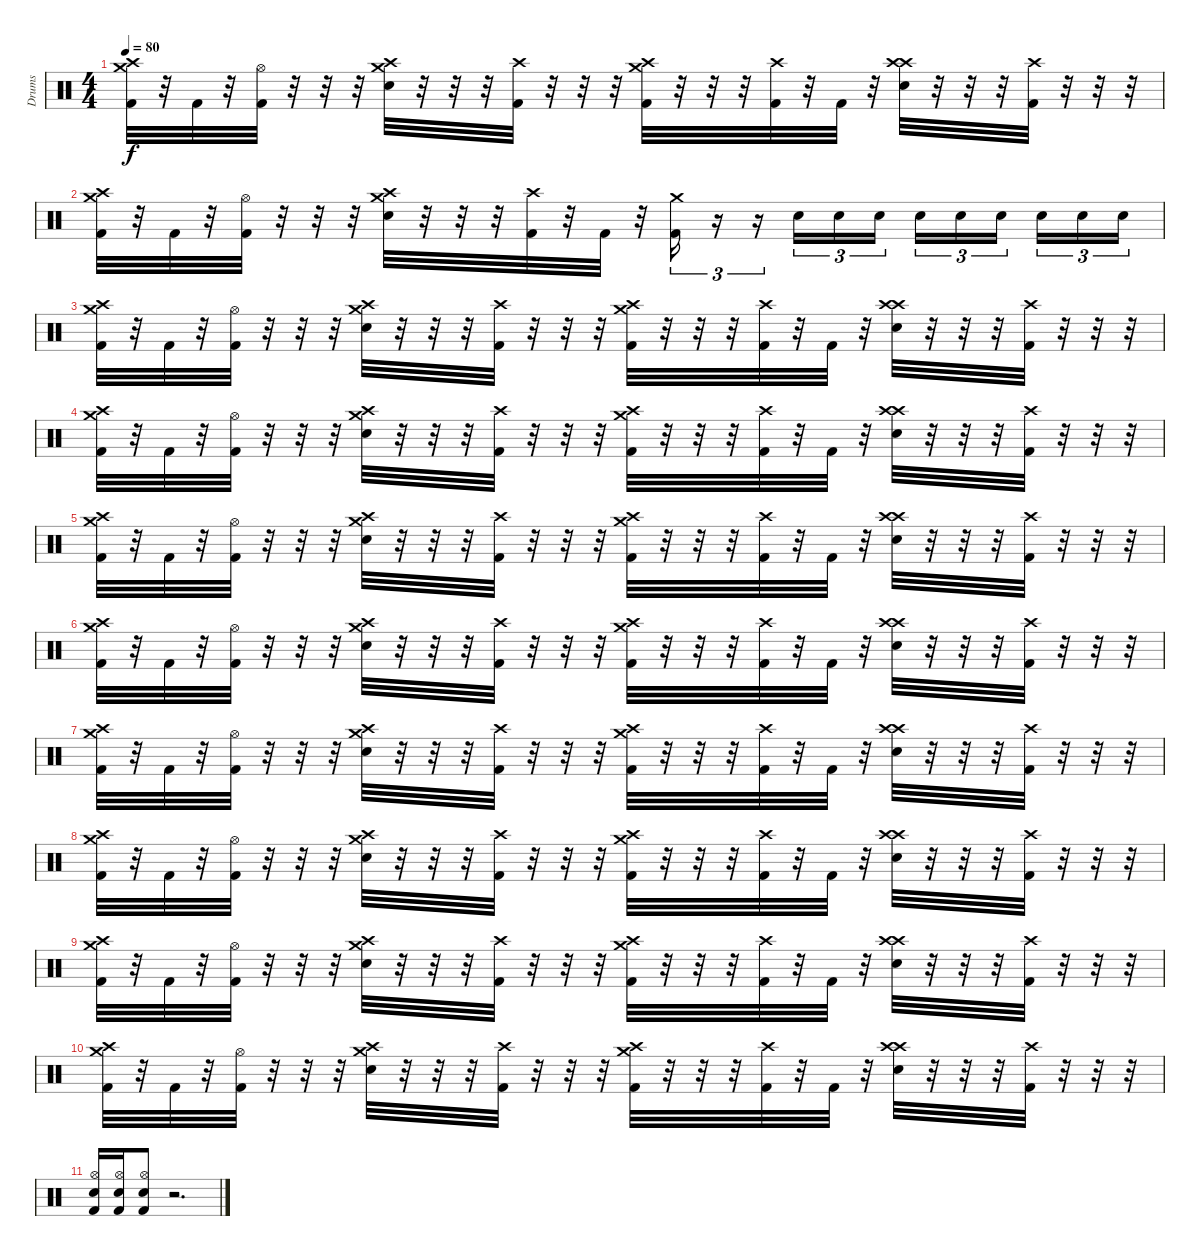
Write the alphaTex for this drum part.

\track ("Drums" "Drums") {instrument percussion}
\staff {score}
\articulation defaults
\ts (4 4)
\tempo 80
\clef neutral
\ks c
("Crash high (hit)" "Crash medium (hit)" "Kick (hit) 2").32{dy f volume 15} r.32 "Kick (hit) 2".32 r.32 ("Hi-Hat (open)" "Kick (hit) 2").32 r.32 r.32 r.32 ("Crash high (hit)" "Crash medium (hit)" "Electric Snare (hit)").32 r.32 r.32 r.32 ("Crash high (hit)" "Kick (hit) 2").32 r.32 r.32 r.32 ("Crash high (hit)" "Crash medium (hit)" "Kick (hit) 2").32 r.32 r.32 r.32 ("Crash high (hit)" "Kick (hit) 2").32 r.32 "Kick (hit) 2".32 r.32 ("Crash high (hit)" "Crash high (hit)" "Electric Snare (hit)").32 r.32 r.32 r.32 ("Crash high (hit)" "Kick (hit) 2").32 r.32 r.32 r.32 |
("Crash high (hit)" "Crash medium (hit)" "Kick (hit) 2").32{volume 15} r.32 "Kick (hit) 2".32 r.32 ("Hi-Hat (open)" "Kick (hit) 2").32 r.32 r.32 r.32 ("Crash high (hit)" "Crash medium (hit)" "Electric Snare (hit)").32 r.32 r.32 r.32 ("Crash high (hit)" "Kick (hit) 2").32 r.32 "Kick (hit) 2".32 r.32 ("Crash medium (hit)" "Kick (hit) 2").16{tu (3 2)} r.16{tu (3 2)} r.16{tu (3 2)} "Electric Snare (hit)".16{tu (3 2)} "Electric Snare (hit)".16{tu (3 2)} "Electric Snare (hit)".16{tu (3 2)} "Electric Snare (hit)".16{tu (3 2)} "Electric Snare (hit)".16{tu (3 2)} "Electric Snare (hit)".16{tu (3 2)} "Electric Snare (hit)".16{tu (3 2)} "Electric Snare (hit)".16{tu (3 2)} "Electric Snare (hit)".16{tu (3 2)} |
("Crash high (hit)" "Crash medium (hit)" "Kick (hit) 2").32{volume 15} r.32 "Kick (hit) 2".32 r.32 ("Hi-Hat (open)" "Kick (hit) 2").32 r.32 r.32 r.32 ("Crash high (hit)" "Crash medium (hit)" "Electric Snare (hit)").32 r.32 r.32 r.32 ("Crash high (hit)" "Kick (hit) 2").32 r.32 r.32 r.32 ("Crash high (hit)" "Crash medium (hit)" "Kick (hit) 2").32 r.32 r.32 r.32 ("Crash high (hit)" "Kick (hit) 2").32 r.32 "Kick (hit) 2".32 r.32 ("Crash high (hit)" "Crash high (hit)" "Electric Snare (hit)").32 r.32 r.32 r.32 ("Crash high (hit)" "Kick (hit) 2").32 r.32 r.32 r.32 |
("Crash high (hit)" "Crash medium (hit)" "Kick (hit) 2").32{volume 15} r.32 "Kick (hit) 2".32 r.32 ("Hi-Hat (open)" "Kick (hit) 2").32 r.32 r.32 r.32 ("Crash high (hit)" "Crash medium (hit)" "Electric Snare (hit)").32 r.32 r.32 r.32 ("Crash high (hit)" "Kick (hit) 2").32 r.32 r.32 r.32 ("Crash high (hit)" "Crash medium (hit)" "Kick (hit) 2").32 r.32 r.32 r.32 ("Crash high (hit)" "Kick (hit) 2").32 r.32 "Kick (hit) 2".32 r.32 ("Crash high (hit)" "Crash high (hit)" "Electric Snare (hit)").32 r.32 r.32 r.32 ("Crash high (hit)" "Kick (hit) 2").32 r.32 r.32 r.32 |
("Crash high (hit)" "Crash medium (hit)" "Kick (hit) 2").32{volume 15} r.32 "Kick (hit) 2".32 r.32 ("Hi-Hat (open)" "Kick (hit) 2").32 r.32 r.32 r.32 ("Crash high (hit)" "Crash medium (hit)" "Electric Snare (hit)").32 r.32 r.32 r.32 ("Crash high (hit)" "Kick (hit) 2").32 r.32 r.32 r.32 ("Crash high (hit)" "Crash medium (hit)" "Kick (hit) 2").32 r.32 r.32 r.32 ("Crash high (hit)" "Kick (hit) 2").32 r.32 "Kick (hit) 2".32 r.32 ("Crash high (hit)" "Crash high (hit)" "Electric Snare (hit)").32 r.32 r.32 r.32 ("Crash high (hit)" "Kick (hit) 2").32 r.32 r.32 r.32 |
("Crash high (hit)" "Crash medium (hit)" "Kick (hit) 2").32{volume 15} r.32 "Kick (hit) 2".32 r.32 ("Hi-Hat (open)" "Kick (hit) 2").32 r.32 r.32 r.32 ("Crash high (hit)" "Crash medium (hit)" "Electric Snare (hit)").32 r.32 r.32 r.32 ("Crash high (hit)" "Kick (hit) 2").32 r.32 r.32 r.32 ("Crash high (hit)" "Crash medium (hit)" "Kick (hit) 2").32 r.32 r.32 r.32 ("Crash high (hit)" "Kick (hit) 2").32 r.32 "Kick (hit) 2".32 r.32 ("Crash high (hit)" "Crash high (hit)" "Electric Snare (hit)").32 r.32 r.32 r.32 ("Crash high (hit)" "Kick (hit) 2").32 r.32 r.32 r.32 |
("Crash high (hit)" "Crash medium (hit)" "Kick (hit) 2").32{volume 15} r.32 "Kick (hit) 2".32 r.32 ("Hi-Hat (open)" "Kick (hit) 2").32 r.32 r.32 r.32 ("Crash high (hit)" "Crash medium (hit)" "Electric Snare (hit)").32 r.32 r.32 r.32 ("Crash high (hit)" "Kick (hit) 2").32 r.32 r.32 r.32 ("Crash high (hit)" "Crash medium (hit)" "Kick (hit) 2").32 r.32 r.32 r.32 ("Crash high (hit)" "Kick (hit) 2").32 r.32 "Kick (hit) 2".32 r.32 ("Crash high (hit)" "Crash high (hit)" "Electric Snare (hit)").32 r.32 r.32 r.32 ("Crash high (hit)" "Kick (hit) 2").32 r.32 r.32 r.32 |
("Crash high (hit)" "Crash medium (hit)" "Kick (hit) 2").32{volume 15} r.32 "Kick (hit) 2".32 r.32 ("Hi-Hat (open)" "Kick (hit) 2").32 r.32 r.32 r.32 ("Crash high (hit)" "Crash medium (hit)" "Electric Snare (hit)").32 r.32 r.32 r.32 ("Crash high (hit)" "Kick (hit) 2").32 r.32 r.32 r.32 ("Crash high (hit)" "Crash medium (hit)" "Kick (hit) 2").32 r.32 r.32 r.32 ("Crash high (hit)" "Kick (hit) 2").32 r.32 "Kick (hit) 2".32 r.32 ("Crash high (hit)" "Crash high (hit)" "Electric Snare (hit)").32 r.32 r.32 r.32 ("Crash high (hit)" "Kick (hit) 2").32 r.32 r.32 r.32 |
("Crash high (hit)" "Crash medium (hit)" "Kick (hit) 2").32{volume 15} r.32 "Kick (hit) 2".32 r.32 ("Hi-Hat (open)" "Kick (hit) 2").32 r.32 r.32 r.32 ("Crash high (hit)" "Crash medium (hit)" "Electric Snare (hit)").32 r.32 r.32 r.32 ("Crash high (hit)" "Kick (hit) 2").32 r.32 r.32 r.32 ("Crash high (hit)" "Crash medium (hit)" "Kick (hit) 2").32 r.32 r.32 r.32 ("Crash high (hit)" "Kick (hit) 2").32 r.32 "Kick (hit) 2".32 r.32 ("Crash high (hit)" "Crash high (hit)" "Electric Snare (hit)").32 r.32 r.32 r.32 ("Crash high (hit)" "Kick (hit) 2").32 r.32 r.32 r.32 |
("Crash high (hit)" "Crash medium (hit)" "Kick (hit) 2").32{volume 15} r.32 "Kick (hit) 2".32 r.32 ("Hi-Hat (open)" "Kick (hit) 2").32 r.32 r.32 r.32 ("Crash high (hit)" "Crash medium (hit)" "Electric Snare (hit)").32 r.32 r.32 r.32 ("Crash high (hit)" "Kick (hit) 2").32 r.32 r.32 r.32 ("Crash high (hit)" "Crash medium (hit)" "Kick (hit) 2").32 r.32 r.32 r.32 ("Crash high (hit)" "Kick (hit) 2").32 r.32 "Kick (hit) 2".32 r.32 ("Crash high (hit)" "Crash high (hit)" "Electric Snare (hit)").32 r.32 r.32 r.32 ("Crash high (hit)" "Kick (hit) 2").32 r.32 r.32 r.32 |
("Hi-Hat (open)" "Electric Snare (hit)" "Kick (hit) 2").16 ("Hi-Hat (open)" "Electric Snare (hit)" "Kick (hit) 2").16 ("Hi-Hat (open)" "Electric Snare (hit)" "Kick (hit) 2").8 r.2{d}
